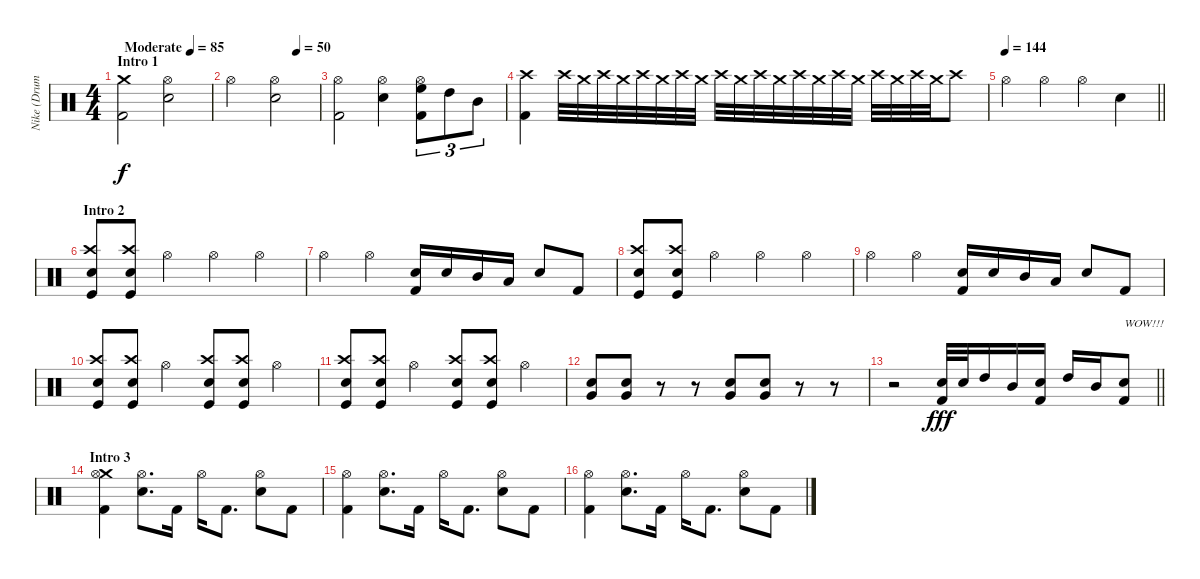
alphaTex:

\track ("Nike (Drums)" "Nike (Drum") {instrument percussion}
\staff {score}
\articulation defaults
\ts (4 4)
\section ("" "Intro 1")
\tempo (85 "Moderate")
\clef neutral
\ks c
("Crash medium (hit)" "Kick (hit) 2").2{dy f} ("Electric Snare (hit)" "Hi-Hat (open)").2 |
\tempo (50 0.75)
"Hi-Hat (open)".2 ("Snare (hit) 2" "Hi-Hat (open)").2 |
("Kick (hit) 2" "Hi-Hat (open)").2 ("Snare (hit) 2" "Hi-Hat (open)").4 ("Hi-Hat (open)" "Kick (hit) 2" "High Floor Tom (hit)").8{tu (3 2)} "High Tom (hit)".8{tu (3 2)} "Mid Tom (hit)".8{tu (3 2)} |
("Kick (hit) 2" "Crash high (hit)").4 "Crash high (hit)".32 "Crash medium (hit)".32 "Crash high (hit)".32 "Crash medium (hit)".32 "Crash high (hit)".32 "Crash medium (hit)".32 "Crash high (hit)".32 "Crash medium (hit)".32 "Crash high (hit)".32 "Crash medium (hit)".32 "Crash high (hit)".32 "Crash medium (hit)".32 "Crash high (hit)".32 "Crash medium (hit)".32 "Crash high (hit)".32 "Crash medium (hit)".32 "Crash high (hit)".32 "Crash medium (hit)".32 "Crash high (hit)".32 "Crash medium (hit)".32 "Crash high (hit)".8 |
\tempo 144
\barLineRight lightlight "Hi-Hat (open)".4 "Hi-Hat (open)".4 "Hi-Hat (open)".4 "Snare (hit) 2".4
|
\section ("" "Intro 2")
("Electric Snare (hit)" "Kick (hit)" "Crash high (hit)").8 ("Electric Snare (hit)" "Kick (hit)" "Crash high (hit)").8 "Hi-Hat (open)".4 "Hi-Hat (open)".4 "Hi-Hat (open)".4 |
"Hi-Hat (open)".4 "Hi-Hat (open)".4 ("Electric Snare (hit)" "Kick (hit) 2").16 "Electric Snare (hit)".16 "Mid Tom (hit)".16 "Low Tom (hit)".16 "Electric Snare (hit)".8 "Kick (hit) 2".8 |
("Electric Snare (hit)" "Kick (hit)" "Crash high (hit)").8 ("Electric Snare (hit)" "Kick (hit)" "Crash high (hit)").8 "Hi-Hat (open)".4 "Hi-Hat (open)".4 "Hi-Hat (open)".4 |
"Hi-Hat (open)".4 "Hi-Hat (open)".4 ("Electric Snare (hit)" "Kick (hit) 2").16 "Electric Snare (hit)".16 "Mid Tom (hit)".16 "Low Tom (hit)".16 "Electric Snare (hit)".8 "Kick (hit) 2".8 |
("Electric Snare (hit)" "Kick (hit)" "Crash high (hit)").8 ("Electric Snare (hit)" "Kick (hit)" "Crash high (hit)").8 "Hi-Hat (open)".4 ("Electric Snare (hit)" "Kick (hit)" "Crash high (hit)").8 ("Electric Snare (hit)" "Kick (hit)" "Crash high (hit)").8 "Hi-Hat (open)".4 |
("Electric Snare (hit)" "Kick (hit)" "Crash high (hit)").8 ("Electric Snare (hit)" "Kick (hit)" "Crash high (hit)").8 "Hi-Hat (open)".4 ("Electric Snare (hit)" "Kick (hit)" "Crash high (hit)").8 ("Electric Snare (hit)" "Kick (hit)" "Crash high (hit)").8 "Hi-Hat (open)".4 |
("Very Low Tom (hit)" "Snare (hit) 2").8 ("Very Low Tom (hit)" "Snare (hit) 2").8 r.8 r.8 ("Very Low Tom (hit)" "Snare (hit) 2").8 ("Very Low Tom (hit)" "Snare (hit) 2").8 r.8 r.8 |
\barLineRight lightlight
r.2 ("Electric Snare (hit)" "Kick (hit) 2").32{dy fff} "Electric Snare (hit)".32 "High Tom (hit)".16 "Mid Tom (hit)".16 ("Electric Snare (hit)" "Kick (hit) 2").16 "High Tom (hit)".16 "Mid Tom (hit)".16 ("Electric Snare (hit)" "Kick (hit) 2").8{txt "WOW!!!"} |
\section ("" "Intro 3")
("Kick (hit) 2" "Crash medium (hit)" "Hi-Hat (open)").4 ("Hi-Hat (open)" "Electric Snare (hit)").8{d} "Kick (hit) 2".16 "Hi-Hat (open)".16 "Kick (hit) 2".8{d} ("Hi-Hat (open)" "Electric Snare (hit)").8 "Kick (hit) 2".8 |
("Kick (hit) 2" "Hi-Hat (open)").4 ("Hi-Hat (open)" "Electric Snare (hit)").8{d} "Kick (hit) 2".16 "Hi-Hat (open)".16 "Kick (hit) 2".8{d} ("Hi-Hat (open)" "Electric Snare (hit)").8 "Kick (hit) 2".8 |
("Kick (hit) 2" "Hi-Hat (open)").4 ("Hi-Hat (open)" "Electric Snare (hit)").8{d} "Kick (hit) 2".16 "Hi-Hat (open)".16 "Kick (hit) 2".8{d} ("Hi-Hat (open)" "Electric Snare (hit)").8 "Kick (hit) 2".8
